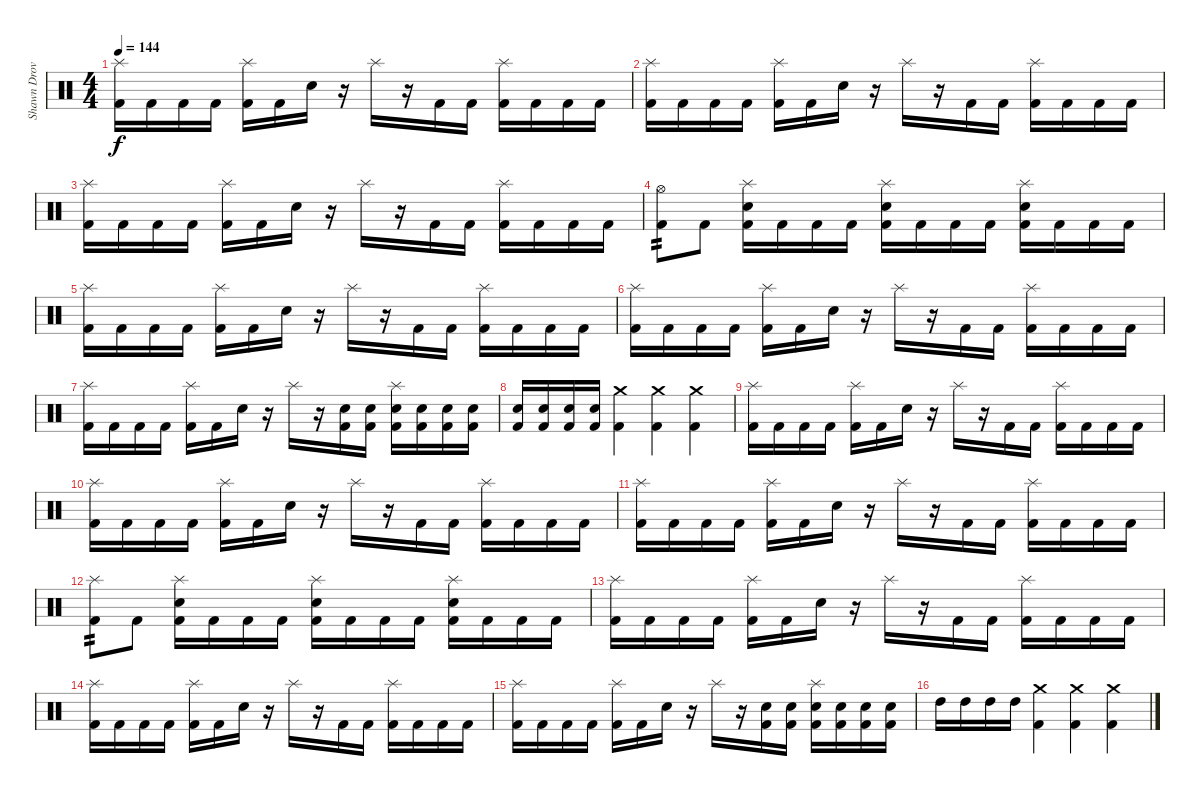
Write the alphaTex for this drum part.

\track ("Shawn Drover" "Shawn Drov") {instrument percussion}
\staff {score}
\articulation defaults
\ts (4 4)
\tempo 144
\clef neutral
\ks c
("Splash (hit)" "Kick (hit) 2").16{dy f} "Kick (hit) 2".16 "Kick (hit) 2".16 "Kick (hit) 2".16 ("Splash (hit)" "Kick (hit) 2").16 "Kick (hit) 2".16 "Electric Snare (hit)".16 r.16 "Splash (hit)".16 r.16 "Kick (hit) 2".16 "Kick (hit) 2".16 ("Splash (hit)" "Kick (hit) 2").16 "Kick (hit) 2".16 "Kick (hit) 2".16 "Kick (hit) 2".16 |
("Splash (hit)" "Kick (hit) 2").16 "Kick (hit) 2".16 "Kick (hit) 2".16 "Kick (hit) 2".16 ("Splash (hit)" "Kick (hit) 2").16 "Kick (hit) 2".16 "Electric Snare (hit)".16 r.16 "Splash (hit)".16 r.16 "Kick (hit) 2".16 "Kick (hit) 2".16 ("Splash (hit)" "Kick (hit) 2").16 "Kick (hit) 2".16 "Kick (hit) 2".16 "Kick (hit) 2".16 |
("Splash (hit)" "Kick (hit) 2").16 "Kick (hit) 2".16 "Kick (hit) 2".16 "Kick (hit) 2".16 ("Splash (hit)" "Kick (hit) 2").16 "Kick (hit) 2".16 "Electric Snare (hit)".16 r.16 "Splash (hit)".16 r.16 "Kick (hit) 2".16 "Kick (hit) 2".16 ("Splash (hit)" "Kick (hit) 2").16 "Kick (hit) 2".16 "Kick (hit) 2".16 "Kick (hit) 2".16 |
("Hi-Hat (open)" "Kick (hit) 2").8{tp 2} "Kick (hit) 2".8 ("Splash (hit)" "Electric Snare (hit)" "Kick (hit) 2").16 "Kick (hit) 2".16 "Kick (hit) 2".16 "Kick (hit) 2".16 ("Splash (hit)" "Electric Snare (hit)" "Kick (hit) 2").16 "Kick (hit) 2".16 "Kick (hit) 2".16 "Kick (hit) 2".16 ("Splash (hit)" "Electric Snare (hit)" "Kick (hit) 2").16 "Kick (hit) 2".16 "Kick (hit) 2".16 "Kick (hit) 2".16 |
("Splash (hit)" "Kick (hit) 2").16 "Kick (hit) 2".16 "Kick (hit) 2".16 "Kick (hit) 2".16 ("Splash (hit)" "Kick (hit) 2").16 "Kick (hit) 2".16 "Electric Snare (hit)".16 r.16 "Splash (hit)".16 r.16 "Kick (hit) 2".16 "Kick (hit) 2".16 ("Splash (hit)" "Kick (hit) 2").16 "Kick (hit) 2".16 "Kick (hit) 2".16 "Kick (hit) 2".16 |
("Splash (hit)" "Kick (hit) 2").16 "Kick (hit) 2".16 "Kick (hit) 2".16 "Kick (hit) 2".16 ("Splash (hit)" "Kick (hit) 2").16 "Kick (hit) 2".16 "Electric Snare (hit)".16 r.16 "Splash (hit)".16 r.16 "Kick (hit) 2".16 "Kick (hit) 2".16 ("Splash (hit)" "Kick (hit) 2").16 "Kick (hit) 2".16 "Kick (hit) 2".16 "Kick (hit) 2".16 |
("Splash (hit)" "Kick (hit) 2").16 "Kick (hit) 2".16 "Kick (hit) 2".16 "Kick (hit) 2".16 ("Splash (hit)" "Kick (hit) 2").16 "Kick (hit) 2".16 "Electric Snare (hit)".16 r.16 "Splash (hit)".16 r.16 ("Electric Snare (hit)" "Kick (hit) 2").16 ("Electric Snare (hit)" "Kick (hit) 2").16 ("Electric Snare (hit)" "Splash (hit)" "Kick (hit) 2").16 ("Electric Snare (hit)" "Kick (hit) 2").16 ("Electric Snare (hit)" "Kick (hit) 2").16 ("Electric Snare (hit)" "Kick (hit) 2").16 |
("Electric Snare (hit)" "Kick (hit) 2").16 ("Electric Snare (hit)" "Kick (hit) 2").16 ("Electric Snare (hit)" "Kick (hit) 2").16 ("Electric Snare (hit)" "Kick (hit) 2").16 ("Crash medium (hit)" "Kick (hit) 2").4 ("Crash medium (hit)" "Kick (hit) 2").4 ("Crash medium (hit)" "Kick (hit) 2").4 |
("Splash (hit)" "Kick (hit) 2").16 "Kick (hit) 2".16 "Kick (hit) 2".16 "Kick (hit) 2".16 ("Splash (hit)" "Kick (hit) 2").16 "Kick (hit) 2".16 "Electric Snare (hit)".16 r.16 "Splash (hit)".16 r.16 "Kick (hit) 2".16 "Kick (hit) 2".16 ("Splash (hit)" "Kick (hit) 2").16 "Kick (hit) 2".16 "Kick (hit) 2".16 "Kick (hit) 2".16 |
("Splash (hit)" "Kick (hit) 2").16 "Kick (hit) 2".16 "Kick (hit) 2".16 "Kick (hit) 2".16 ("Splash (hit)" "Kick (hit) 2").16 "Kick (hit) 2".16 "Electric Snare (hit)".16 r.16 "Splash (hit)".16 r.16 "Kick (hit) 2".16 "Kick (hit) 2".16 ("Splash (hit)" "Kick (hit) 2").16 "Kick (hit) 2".16 "Kick (hit) 2".16 "Kick (hit) 2".16 |
("Splash (hit)" "Kick (hit) 2").16 "Kick (hit) 2".16 "Kick (hit) 2".16 "Kick (hit) 2".16 ("Splash (hit)" "Kick (hit) 2").16 "Kick (hit) 2".16 "Electric Snare (hit)".16 r.16 "Splash (hit)".16 r.16 "Kick (hit) 2".16 "Kick (hit) 2".16 ("Splash (hit)" "Kick (hit) 2").16 "Kick (hit) 2".16 "Kick (hit) 2".16 "Kick (hit) 2".16 |
("Splash (hit)" "Kick (hit) 2").8{tp 2} "Kick (hit) 2".8 ("Splash (hit)" "Electric Snare (hit)" "Kick (hit) 2").16 "Kick (hit) 2".16 "Kick (hit) 2".16 "Kick (hit) 2".16 ("Splash (hit)" "Electric Snare (hit)" "Kick (hit) 2").16 "Kick (hit) 2".16 "Kick (hit) 2".16 "Kick (hit) 2".16 ("Splash (hit)" "Electric Snare (hit)" "Kick (hit) 2").16 "Kick (hit) 2".16 "Kick (hit) 2".16 "Kick (hit) 2".16 |
("Splash (hit)" "Kick (hit) 2").16 "Kick (hit) 2".16 "Kick (hit) 2".16 "Kick (hit) 2".16 ("Splash (hit)" "Kick (hit) 2").16 "Kick (hit) 2".16 "Electric Snare (hit)".16 r.16 "Splash (hit)".16 r.16 "Kick (hit) 2".16 "Kick (hit) 2".16 ("Splash (hit)" "Kick (hit) 2").16 "Kick (hit) 2".16 "Kick (hit) 2".16 "Kick (hit) 2".16 |
("Splash (hit)" "Kick (hit) 2").16 "Kick (hit) 2".16 "Kick (hit) 2".16 "Kick (hit) 2".16 ("Splash (hit)" "Kick (hit) 2").16 "Kick (hit) 2".16 "Electric Snare (hit)".16 r.16 "Splash (hit)".16 r.16 "Kick (hit) 2".16 "Kick (hit) 2".16 ("Splash (hit)" "Kick (hit) 2").16 "Kick (hit) 2".16 "Kick (hit) 2".16 "Kick (hit) 2".16 |
("Splash (hit)" "Kick (hit) 2").16 "Kick (hit) 2".16 "Kick (hit) 2".16 "Kick (hit) 2".16 ("Splash (hit)" "Kick (hit) 2").16 "Kick (hit) 2".16 "Electric Snare (hit)".16 r.16 "Splash (hit)".16 r.16 ("Electric Snare (hit)" "Kick (hit) 2").16 ("Electric Snare (hit)" "Kick (hit) 2").16 ("Electric Snare (hit)" "Splash (hit)" "Kick (hit) 2").16 ("Electric Snare (hit)" "Kick (hit) 2").16 ("Electric Snare (hit)" "Kick (hit) 2").16 ("Electric Snare (hit)" "Kick (hit) 2").16 |
"High Tom (hit)".16 "High Tom (hit)".16 "High Tom (hit)".16 "High Tom (hit)".16 ("Crash medium (hit)" "Kick (hit) 2").4 ("Crash medium (hit)" "Kick (hit) 2").4 ("Crash medium (hit)" "Kick (hit) 2").4
